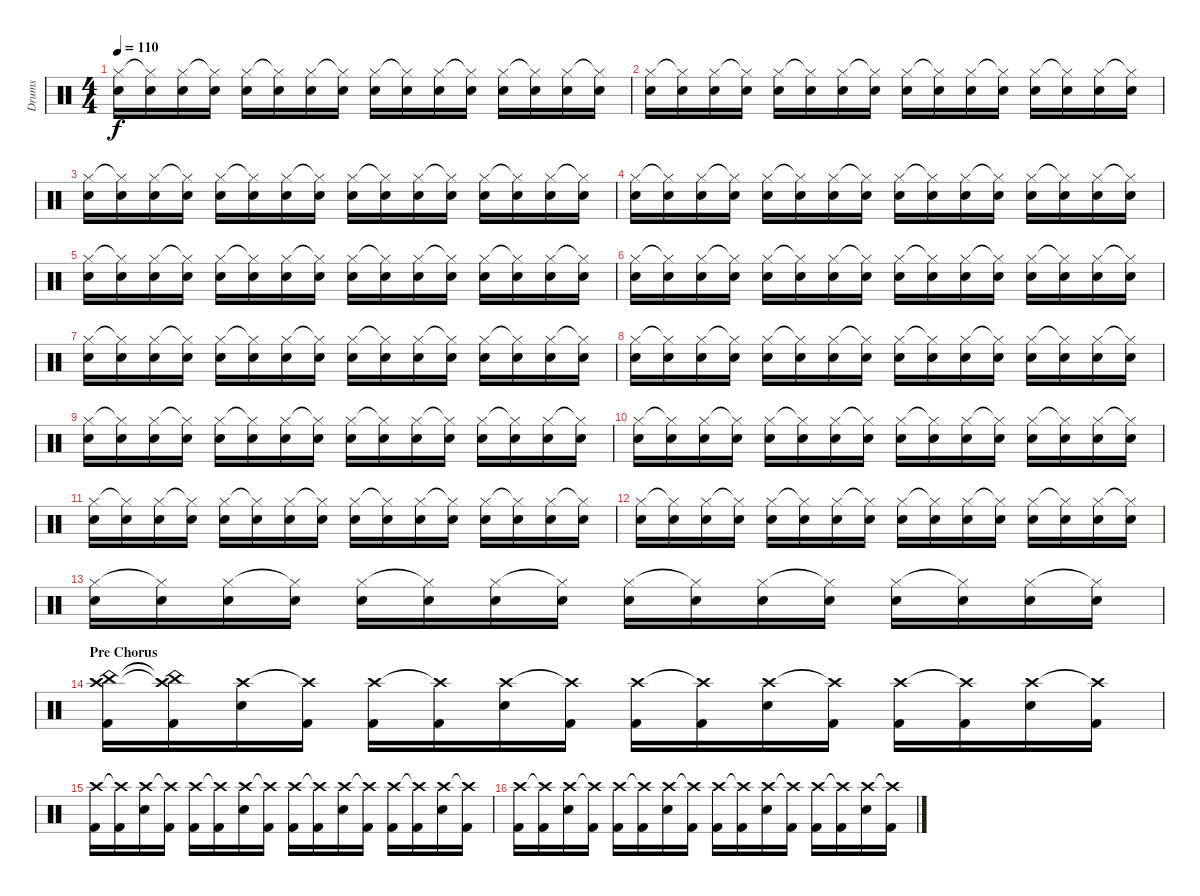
\track ("Drums" "Drums") {instrument percussion}
\staff {score}
\articulation defaults
\ts (4 4)
\tempo 110
\clef neutral
\ks c
("Snare (hit) 2" "Hi-Hat (closed)").16{dy f} ("Snare (hit) 2" "Hi-Hat (closed)"{t}).16 ("Snare (hit) 2" "Hi-Hat (closed)").16 ("Snare (hit) 2" "Hi-Hat (closed)"{t}).16 ("Snare (hit) 2" "Hi-Hat (closed)").16 ("Snare (hit) 2" "Hi-Hat (closed)"{t}).16 ("Snare (hit) 2" "Hi-Hat (closed)").16 ("Snare (hit) 2" "Hi-Hat (closed)"{t}).16 ("Snare (hit) 2" "Hi-Hat (closed)").16 ("Snare (hit) 2" "Hi-Hat (closed)"{t}).16 ("Snare (hit) 2" "Hi-Hat (closed)").16 ("Snare (hit) 2" "Hi-Hat (closed)"{t}).16 ("Snare (hit) 2" "Hi-Hat (closed)").16 ("Snare (hit) 2" "Hi-Hat (closed)"{t}).16 ("Snare (hit) 2" "Hi-Hat (closed)").16 ("Snare (hit) 2" "Hi-Hat (closed)"{t}).16 |
("Snare (hit) 2" "Hi-Hat (closed)").16 ("Snare (hit) 2" "Hi-Hat (closed)"{t}).16 ("Snare (hit) 2" "Hi-Hat (closed)").16 ("Snare (hit) 2" "Hi-Hat (closed)"{t}).16 ("Snare (hit) 2" "Hi-Hat (closed)").16 ("Snare (hit) 2" "Hi-Hat (closed)"{t}).16 ("Snare (hit) 2" "Hi-Hat (closed)").16 ("Snare (hit) 2" "Hi-Hat (closed)"{t}).16 ("Snare (hit) 2" "Hi-Hat (closed)").16 ("Snare (hit) 2" "Hi-Hat (closed)"{t}).16 ("Snare (hit) 2" "Hi-Hat (closed)").16 ("Snare (hit) 2" "Hi-Hat (closed)"{t}).16 ("Snare (hit) 2" "Hi-Hat (closed)").16 ("Snare (hit) 2" "Hi-Hat (closed)"{t}).16 ("Snare (hit) 2" "Hi-Hat (closed)").16 ("Snare (hit) 2" "Hi-Hat (closed)"{t}).16 |
("Snare (hit) 2" "Hi-Hat (closed)").16 ("Snare (hit) 2" "Hi-Hat (closed)"{t}).16 ("Snare (hit) 2" "Hi-Hat (closed)").16 ("Snare (hit) 2" "Hi-Hat (closed)"{t}).16 ("Snare (hit) 2" "Hi-Hat (closed)").16 ("Snare (hit) 2" "Hi-Hat (closed)"{t}).16 ("Snare (hit) 2" "Hi-Hat (closed)").16 ("Snare (hit) 2" "Hi-Hat (closed)"{t}).16 ("Snare (hit) 2" "Hi-Hat (closed)").16 ("Snare (hit) 2" "Hi-Hat (closed)"{t}).16 ("Snare (hit) 2" "Hi-Hat (closed)").16 ("Snare (hit) 2" "Hi-Hat (closed)"{t}).16 ("Snare (hit) 2" "Hi-Hat (closed)").16 ("Snare (hit) 2" "Hi-Hat (closed)"{t}).16 ("Snare (hit) 2" "Hi-Hat (closed)").16 ("Snare (hit) 2" "Hi-Hat (closed)"{t}).16 |
("Snare (hit) 2" "Hi-Hat (closed)").16 ("Snare (hit) 2" "Hi-Hat (closed)"{t}).16 ("Snare (hit) 2" "Hi-Hat (closed)").16 ("Snare (hit) 2" "Hi-Hat (closed)"{t}).16 ("Snare (hit) 2" "Hi-Hat (closed)").16 ("Snare (hit) 2" "Hi-Hat (closed)"{t}).16 ("Snare (hit) 2" "Hi-Hat (closed)").16 ("Snare (hit) 2" "Hi-Hat (closed)"{t}).16 ("Snare (hit) 2" "Hi-Hat (closed)").16 ("Snare (hit) 2" "Hi-Hat (closed)"{t}).16 ("Snare (hit) 2" "Hi-Hat (closed)").16 ("Snare (hit) 2" "Hi-Hat (closed)"{t}).16 ("Snare (hit) 2" "Hi-Hat (closed)").16 ("Snare (hit) 2" "Hi-Hat (closed)"{t}).16 ("Snare (hit) 2" "Hi-Hat (closed)").16 ("Snare (hit) 2" "Hi-Hat (closed)"{t}).16 |
("Snare (hit) 2" "Hi-Hat (closed)").16 ("Snare (hit) 2" "Hi-Hat (closed)"{t}).16 ("Snare (hit) 2" "Hi-Hat (closed)").16 ("Snare (hit) 2" "Hi-Hat (closed)"{t}).16 ("Snare (hit) 2" "Hi-Hat (closed)").16 ("Snare (hit) 2" "Hi-Hat (closed)"{t}).16 ("Snare (hit) 2" "Hi-Hat (closed)").16 ("Snare (hit) 2" "Hi-Hat (closed)"{t}).16 ("Snare (hit) 2" "Hi-Hat (closed)").16 ("Snare (hit) 2" "Hi-Hat (closed)"{t}).16 ("Snare (hit) 2" "Hi-Hat (closed)").16 ("Snare (hit) 2" "Hi-Hat (closed)"{t}).16 ("Snare (hit) 2" "Hi-Hat (closed)").16 ("Snare (hit) 2" "Hi-Hat (closed)"{t}).16 ("Snare (hit) 2" "Hi-Hat (closed)").16 ("Snare (hit) 2" "Hi-Hat (closed)"{t}).16 |
("Snare (hit) 2" "Hi-Hat (closed)").16 ("Snare (hit) 2" "Hi-Hat (closed)"{t}).16 ("Snare (hit) 2" "Hi-Hat (closed)").16 ("Snare (hit) 2" "Hi-Hat (closed)"{t}).16 ("Snare (hit) 2" "Hi-Hat (closed)").16 ("Snare (hit) 2" "Hi-Hat (closed)"{t}).16 ("Snare (hit) 2" "Hi-Hat (closed)").16 ("Snare (hit) 2" "Hi-Hat (closed)"{t}).16 ("Snare (hit) 2" "Hi-Hat (closed)").16 ("Snare (hit) 2" "Hi-Hat (closed)"{t}).16 ("Snare (hit) 2" "Hi-Hat (closed)").16 ("Snare (hit) 2" "Hi-Hat (closed)"{t}).16 ("Snare (hit) 2" "Hi-Hat (closed)").16 ("Snare (hit) 2" "Hi-Hat (closed)"{t}).16 ("Snare (hit) 2" "Hi-Hat (closed)").16 ("Snare (hit) 2" "Hi-Hat (closed)"{t}).16 |
("Snare (hit) 2" "Hi-Hat (closed)").16 ("Snare (hit) 2" "Hi-Hat (closed)"{t}).16 ("Snare (hit) 2" "Hi-Hat (closed)").16 ("Snare (hit) 2" "Hi-Hat (closed)"{t}).16 ("Snare (hit) 2" "Hi-Hat (closed)").16 ("Snare (hit) 2" "Hi-Hat (closed)"{t}).16 ("Snare (hit) 2" "Hi-Hat (closed)").16 ("Snare (hit) 2" "Hi-Hat (closed)"{t}).16 ("Snare (hit) 2" "Hi-Hat (closed)").16 ("Snare (hit) 2" "Hi-Hat (closed)"{t}).16 ("Snare (hit) 2" "Hi-Hat (closed)").16 ("Snare (hit) 2" "Hi-Hat (closed)"{t}).16 ("Snare (hit) 2" "Hi-Hat (closed)").16 ("Snare (hit) 2" "Hi-Hat (closed)"{t}).16 ("Snare (hit) 2" "Hi-Hat (closed)").16 ("Snare (hit) 2" "Hi-Hat (closed)"{t}).16 |
("Snare (hit) 2" "Hi-Hat (closed)").16 ("Snare (hit) 2" "Hi-Hat (closed)"{t}).16 ("Snare (hit) 2" "Hi-Hat (closed)").16 ("Snare (hit) 2" "Hi-Hat (closed)"{t}).16 ("Snare (hit) 2" "Hi-Hat (closed)").16 ("Snare (hit) 2" "Hi-Hat (closed)"{t}).16 ("Snare (hit) 2" "Hi-Hat (closed)").16 ("Snare (hit) 2" "Hi-Hat (closed)"{t}).16 ("Snare (hit) 2" "Hi-Hat (closed)").16 ("Snare (hit) 2" "Hi-Hat (closed)"{t}).16 ("Snare (hit) 2" "Hi-Hat (closed)").16 ("Snare (hit) 2" "Hi-Hat (closed)"{t}).16 ("Snare (hit) 2" "Hi-Hat (closed)").16 ("Snare (hit) 2" "Hi-Hat (closed)"{t}).16 ("Snare (hit) 2" "Hi-Hat (closed)").16 ("Snare (hit) 2" "Hi-Hat (closed)"{t}).16 |
("Snare (hit) 2" "Hi-Hat (closed)").16 ("Snare (hit) 2" "Hi-Hat (closed)"{t}).16 ("Snare (hit) 2" "Hi-Hat (closed)").16 ("Snare (hit) 2" "Hi-Hat (closed)"{t}).16 ("Snare (hit) 2" "Hi-Hat (closed)").16 ("Snare (hit) 2" "Hi-Hat (closed)"{t}).16 ("Snare (hit) 2" "Hi-Hat (closed)").16 ("Snare (hit) 2" "Hi-Hat (closed)"{t}).16 ("Snare (hit) 2" "Hi-Hat (closed)").16 ("Snare (hit) 2" "Hi-Hat (closed)"{t}).16 ("Snare (hit) 2" "Hi-Hat (closed)").16 ("Snare (hit) 2" "Hi-Hat (closed)"{t}).16 ("Snare (hit) 2" "Hi-Hat (closed)").16 ("Snare (hit) 2" "Hi-Hat (closed)"{t}).16 ("Snare (hit) 2" "Hi-Hat (closed)").16 ("Snare (hit) 2" "Hi-Hat (closed)"{t}).16 |
("Snare (hit) 2" "Hi-Hat (closed)").16 ("Snare (hit) 2" "Hi-Hat (closed)"{t}).16 ("Snare (hit) 2" "Hi-Hat (closed)").16 ("Snare (hit) 2" "Hi-Hat (closed)"{t}).16 ("Snare (hit) 2" "Hi-Hat (closed)").16 ("Snare (hit) 2" "Hi-Hat (closed)"{t}).16 ("Snare (hit) 2" "Hi-Hat (closed)").16 ("Snare (hit) 2" "Hi-Hat (closed)"{t}).16 ("Snare (hit) 2" "Hi-Hat (closed)").16 ("Snare (hit) 2" "Hi-Hat (closed)"{t}).16 ("Snare (hit) 2" "Hi-Hat (closed)").16 ("Snare (hit) 2" "Hi-Hat (closed)"{t}).16 ("Snare (hit) 2" "Hi-Hat (closed)").16 ("Snare (hit) 2" "Hi-Hat (closed)"{t}).16 ("Snare (hit) 2" "Hi-Hat (closed)").16 ("Snare (hit) 2" "Hi-Hat (closed)"{t}).16 |
("Snare (hit) 2" "Hi-Hat (closed)").16 ("Snare (hit) 2" "Hi-Hat (closed)"{t}).16 ("Snare (hit) 2" "Hi-Hat (closed)").16 ("Snare (hit) 2" "Hi-Hat (closed)"{t}).16 ("Snare (hit) 2" "Hi-Hat (closed)").16 ("Snare (hit) 2" "Hi-Hat (closed)"{t}).16 ("Snare (hit) 2" "Hi-Hat (closed)").16 ("Snare (hit) 2" "Hi-Hat (closed)"{t}).16 ("Snare (hit) 2" "Hi-Hat (closed)").16 ("Snare (hit) 2" "Hi-Hat (closed)"{t}).16 ("Snare (hit) 2" "Hi-Hat (closed)").16 ("Snare (hit) 2" "Hi-Hat (closed)"{t}).16 ("Snare (hit) 2" "Hi-Hat (closed)").16 ("Snare (hit) 2" "Hi-Hat (closed)"{t}).16 ("Snare (hit) 2" "Hi-Hat (closed)").16 ("Snare (hit) 2" "Hi-Hat (closed)"{t}).16 |
("Snare (hit) 2" "Hi-Hat (closed)").16 ("Snare (hit) 2" "Hi-Hat (closed)"{t}).16 ("Snare (hit) 2" "Hi-Hat (closed)").16 ("Snare (hit) 2" "Hi-Hat (closed)"{t}).16 ("Snare (hit) 2" "Hi-Hat (closed)").16 ("Snare (hit) 2" "Hi-Hat (closed)"{t}).16 ("Snare (hit) 2" "Hi-Hat (closed)").16 ("Snare (hit) 2" "Hi-Hat (closed)"{t}).16 ("Snare (hit) 2" "Hi-Hat (closed)").16 ("Snare (hit) 2" "Hi-Hat (closed)"{t}).16 ("Snare (hit) 2" "Hi-Hat (closed)").16 ("Snare (hit) 2" "Hi-Hat (closed)"{t}).16 ("Snare (hit) 2" "Hi-Hat (closed)").16 ("Snare (hit) 2" "Hi-Hat (closed)"{t}).16 ("Snare (hit) 2" "Hi-Hat (closed)").16 ("Snare (hit) 2" "Hi-Hat (closed)"{t}).16 |
("Snare (hit) 2" "Hi-Hat (closed)").16 ("Snare (hit) 2" "Hi-Hat (closed)"{t}).16 ("Snare (hit) 2" "Hi-Hat (closed)").16 ("Snare (hit) 2" "Hi-Hat (closed)"{t}).16 ("Snare (hit) 2" "Hi-Hat (closed)").16 ("Snare (hit) 2" "Hi-Hat (closed)"{t}).16 ("Snare (hit) 2" "Hi-Hat (closed)").16 ("Snare (hit) 2" "Hi-Hat (closed)"{t}).16 ("Snare (hit) 2" "Hi-Hat (closed)").16 ("Snare (hit) 2" "Hi-Hat (closed)"{t}).16 ("Snare (hit) 2" "Hi-Hat (closed)").16 ("Snare (hit) 2" "Hi-Hat (closed)"{t}).16 ("Snare (hit) 2" "Hi-Hat (closed)").16 ("Snare (hit) 2" "Hi-Hat (closed)"{t}).16 ("Snare (hit) 2" "Hi-Hat (closed)").16 ("Snare (hit) 2" "Hi-Hat (closed)"{t}).16 |
\section ("" "Pre Chorus")
("Crash high (hit)" "China (hit)" "Kick (hit) 2").16 ("Crash high (hit)"{t} "China (hit)"{t} "Kick (hit) 2").16 ("Crash high (hit)" "Snare (hit) 2").16 ("Crash high (hit)"{t} "Kick (hit) 2").16 ("Crash high (hit)" "Kick (hit) 2").16 ("Crash high (hit)"{t} "Kick (hit) 2").16 ("Crash high (hit)" "Snare (hit) 2").16 ("Crash high (hit)"{t} "Kick (hit) 2").16 ("Crash high (hit)" "Kick (hit) 2").16 ("Crash high (hit)"{t} "Kick (hit) 2").16 ("Crash high (hit)" "Snare (hit) 2").16 ("Crash high (hit)"{t} "Kick (hit) 2").16 ("Crash high (hit)" "Kick (hit) 2").16 ("Crash high (hit)"{t} "Kick (hit) 2").16 ("Crash high (hit)" "Snare (hit) 2").16 ("Crash high (hit)"{t} "Kick (hit) 2").16 |
("Crash high (hit)" "Kick (hit) 2").16 ("Crash high (hit)"{t} "Kick (hit) 2").16 ("Crash high (hit)" "Snare (hit) 2").16 ("Crash high (hit)"{t} "Kick (hit) 2").16 ("Crash high (hit)" "Kick (hit) 2").16 ("Crash high (hit)"{t} "Kick (hit) 2").16 ("Crash high (hit)" "Snare (hit) 2").16 ("Crash high (hit)"{t} "Kick (hit) 2").16 ("Crash high (hit)" "Kick (hit) 2").16 ("Crash high (hit)"{t} "Kick (hit) 2").16 ("Crash high (hit)" "Snare (hit) 2").16 ("Crash high (hit)"{t} "Kick (hit) 2").16 ("Crash high (hit)" "Kick (hit) 2").16 ("Crash high (hit)"{t} "Kick (hit) 2").16 ("Crash high (hit)" "Snare (hit) 2").16 ("Crash high (hit)"{t} "Kick (hit) 2").16 |
("Crash high (hit)" "Kick (hit) 2").16 ("Crash high (hit)"{t} "Kick (hit) 2").16 ("Crash high (hit)" "Snare (hit) 2").16 ("Crash high (hit)"{t} "Kick (hit) 2").16 ("Crash high (hit)" "Kick (hit) 2").16 ("Crash high (hit)"{t} "Kick (hit) 2").16 ("Crash high (hit)" "Snare (hit) 2").16 ("Crash high (hit)"{t} "Kick (hit) 2").16 ("Crash high (hit)" "Kick (hit) 2").16 ("Crash high (hit)"{t} "Kick (hit) 2").16 ("Crash high (hit)" "Snare (hit) 2").16 ("Crash high (hit)"{t} "Kick (hit) 2").16 ("Crash high (hit)" "Kick (hit) 2").16 ("Crash high (hit)"{t} "Kick (hit) 2").16 ("Crash high (hit)" "Snare (hit) 2").16 ("Crash high (hit)"{t} "Kick (hit) 2").16
